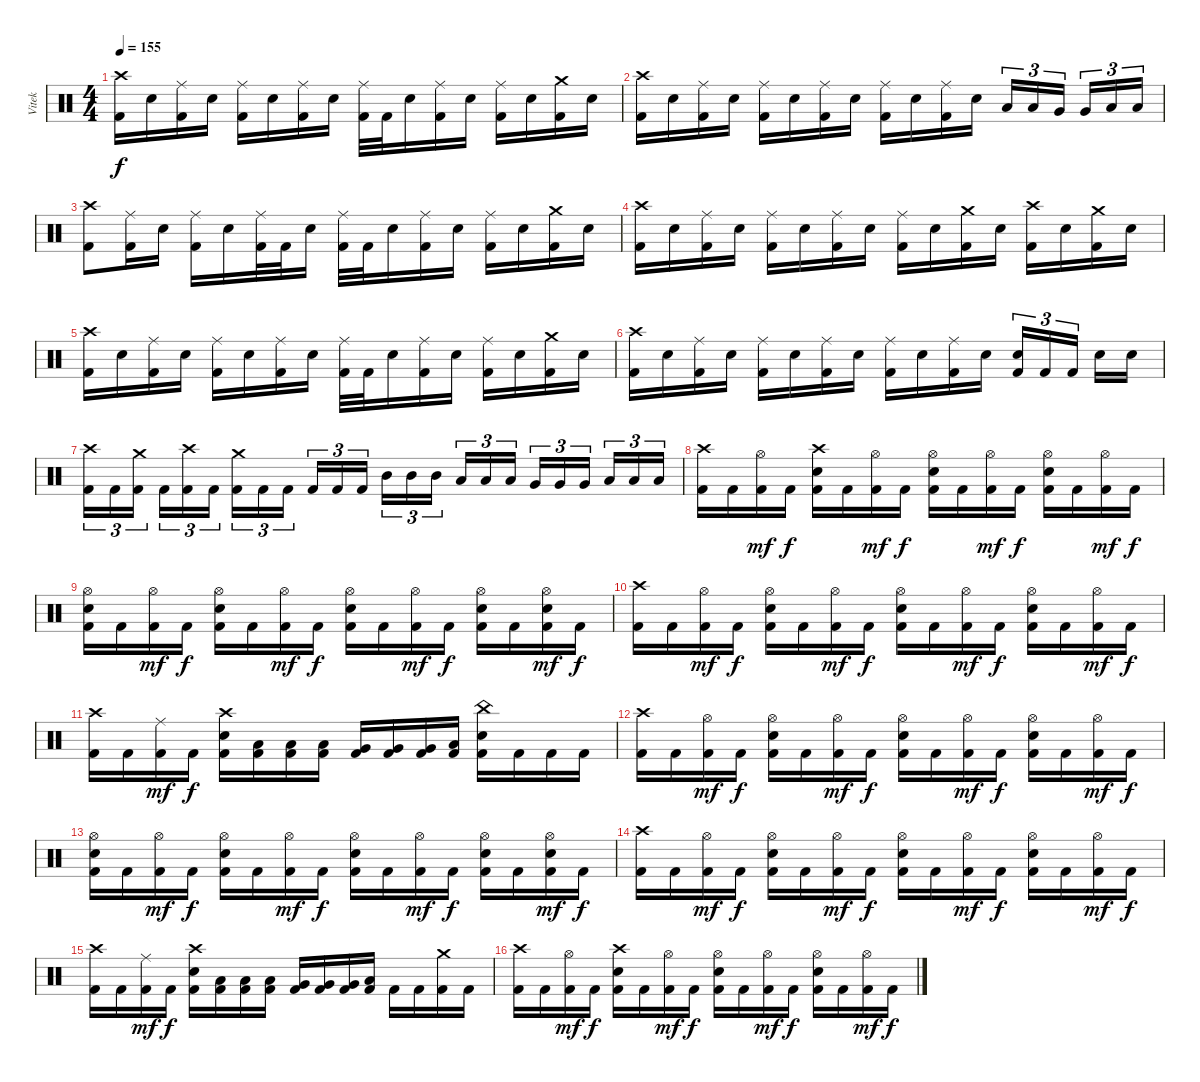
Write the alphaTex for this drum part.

\track ("Vitek" "Vitek") {instrument percussion}
\staff {score}
\articulation defaults
\ts (4 4)
\tempo 155
\clef neutral
\ks c
("Crash high (hit)" "Kick (hit) 2").16{dy f} "Electric Snare (hit)".16 ("Ride (middle)" "Kick (hit) 2").16 "Electric Snare (hit)".16 ("Ride (middle)" "Kick (hit) 2").16 "Electric Snare (hit)".16 ("Ride (middle)" "Kick (hit) 2").16 "Electric Snare (hit)".16 ("Ride (middle)" "Kick (hit) 2").32 "Kick (hit) 2".32 "Electric Snare (hit)".16 ("Ride (middle)" "Kick (hit) 2").16 "Electric Snare (hit)".16 ("Ride (middle)" "Kick (hit) 2").16 "Electric Snare (hit)".16 ("Crash medium (hit)" "Kick (hit) 2").16 "Electric Snare (hit)".16 |
("Crash high (hit)" "Kick (hit) 2").16 "Electric Snare (hit)".16 ("Ride (middle)" "Kick (hit) 2").16 "Electric Snare (hit)".16 ("Ride (middle)" "Kick (hit) 2").16 "Electric Snare (hit)".16 ("Ride (middle)" "Kick (hit) 2").16 "Electric Snare (hit)".16 ("Ride (middle)" "Kick (hit) 2").16 "Electric Snare (hit)".16 ("Ride (middle)" "Kick (hit) 2").16 "Electric Snare (hit)".16 "Low Tom (hit)".16{tu (3 2)} "Low Tom (hit)".16{tu (3 2)} "Very Low Tom (hit)".16{tu (3 2) beam splitsecondary} "Very Low Tom (hit)".16{tu (3 2)} "Low Floor Tom (hit)".16{tu (3 2)} "Low Floor Tom (hit)".16{tu (3 2)} |
("Crash high (hit)" "Kick (hit) 2").8 ("Ride (middle)" "Kick (hit) 2").16 "Electric Snare (hit)".16 ("Ride (middle)" "Kick (hit) 2").16 "Electric Snare (hit)".16 ("Ride (middle)" "Kick (hit) 2").32 "Kick (hit) 2".32 "Electric Snare (hit)".16 ("Ride (middle)" "Kick (hit) 2").32 "Kick (hit) 2".32 "Electric Snare (hit)".16 ("Ride (middle)" "Kick (hit) 2").16 "Electric Snare (hit)".16 ("Ride (middle)" "Kick (hit) 2").16 "Electric Snare (hit)".16 ("Crash medium (hit)" "Kick (hit) 2").16 "Electric Snare (hit)".16 |
("Crash high (hit)" "Kick (hit) 2").16 "Electric Snare (hit)".16 ("Ride (middle)" "Kick (hit) 2").16 "Electric Snare (hit)".16 ("Ride (middle)" "Kick (hit) 2").16 "Electric Snare (hit)".16 ("Ride (middle)" "Kick (hit) 2").16 "Electric Snare (hit)".16 ("Ride (middle)" "Kick (hit) 2").16 "Electric Snare (hit)".16 ("Crash medium (hit)" "Kick (hit) 2").16 "Electric Snare (hit)".16 ("Crash high (hit)" "Kick (hit) 2").16 "Electric Snare (hit)".16 ("Crash medium (hit)" "Kick (hit) 2").16 "Electric Snare (hit)".16 |
("Crash high (hit)" "Kick (hit) 2").16 "Electric Snare (hit)".16 ("Ride (middle)" "Kick (hit) 2").16 "Electric Snare (hit)".16 ("Ride (middle)" "Kick (hit) 2").16 "Electric Snare (hit)".16 ("Ride (middle)" "Kick (hit) 2").16 "Electric Snare (hit)".16 ("Ride (middle)" "Kick (hit) 2").32 "Kick (hit) 2".32 "Electric Snare (hit)".16 ("Ride (middle)" "Kick (hit) 2").16 "Electric Snare (hit)".16 ("Ride (middle)" "Kick (hit) 2").16 "Electric Snare (hit)".16 ("Crash medium (hit)" "Kick (hit) 2").16 "Electric Snare (hit)".16 |
("Crash high (hit)" "Kick (hit) 2").16 "Electric Snare (hit)".16 ("Ride (middle)" "Kick (hit) 2").16 "Electric Snare (hit)".16 ("Ride (middle)" "Kick (hit) 2").16 "Electric Snare (hit)".16 ("Ride (middle)" "Kick (hit) 2").16 "Electric Snare (hit)".16 ("Ride (middle)" "Kick (hit) 2").16 "Electric Snare (hit)".16 ("Ride (middle)" "Kick (hit) 2").16 "Electric Snare (hit)".16 ("Electric Snare (hit)" "Kick (hit) 2").16{tu (3 2)} "Kick (hit) 2".16{tu (3 2)} "Kick (hit) 2".16{tu (3 2) beam splitsecondary} "Electric Snare (hit)".16 "Electric Snare (hit)".16 |
("Crash high (hit)" "Kick (hit) 2").16{tu (3 2)} "Kick (hit) 2".16{tu (3 2)} ("Crash medium (hit)" "Kick (hit) 2").16{tu (3 2) beam splitsecondary} "Kick (hit) 2".16{tu (3 2)} ("Crash high (hit)" "Kick (hit) 2").16{tu (3 2)} "Kick (hit) 2".16{tu (3 2)} ("Crash medium (hit)" "Kick (hit) 2").16{tu (3 2)} "Kick (hit) 2".16{tu (3 2)} "Kick (hit) 2".16{tu (3 2) beam splitsecondary} "Kick (hit) 2".16{tu (3 2)} "Kick (hit) 2".16{tu (3 2)} "Kick (hit) 2".16{tu (3 2)} "Mid Tom (hit)".16{tu (3 2)} "Mid Tom (hit)".16{tu (3 2)} "Mid Tom (hit)".16{tu (3 2) beam splitsecondary} "Low Tom (hit)".16{tu (3 2)} "Low Tom (hit)".16{tu (3 2)} "Low Tom (hit)".16{tu (3 2)} "Very Low Tom (hit)".16{tu (3 2)} "Very Low Tom (hit)".16{tu (3 2)} "Very Low Tom (hit)".16{tu (3 2) beam splitsecondary} "Low Floor Tom (hit)".16{tu (3 2)} "Low Floor Tom (hit)".16{tu (3 2)} "Low Floor Tom (hit)".16{tu (3 2)} |
("Crash high (hit)" "Kick (hit) 2").16 "Kick (hit) 2".16 ("Hi-Hat (open)" "Kick (hit) 2").16{dy mf} "Kick (hit) 2".16{dy f} ("Crash high (hit)" "Electric Snare (hit)" "Kick (hit) 2").16 "Kick (hit) 2".16 ("Hi-Hat (open)" "Kick (hit) 2").16{dy mf} "Kick (hit) 2".16{dy f} ("Hi-Hat (open)" "Electric Snare (hit)" "Kick (hit) 2").16 "Kick (hit) 2".16 ("Hi-Hat (open)" "Kick (hit) 2").16{dy mf} "Kick (hit) 2".16{dy f} ("Hi-Hat (open)" "Electric Snare (hit)" "Kick (hit) 2").16 "Kick (hit) 2".16 ("Hi-Hat (open)" "Kick (hit) 2").16{dy mf} "Kick (hit) 2".16{dy f} |
("Hi-Hat (open)" "Electric Snare (hit)" "Kick (hit) 2").16 "Kick (hit) 2".16 ("Hi-Hat (open)" "Kick (hit) 2").16{dy mf} "Kick (hit) 2".16{dy f} ("Hi-Hat (open)" "Electric Snare (hit)" "Kick (hit) 2").16 "Kick (hit) 2".16 ("Hi-Hat (open)" "Kick (hit) 2").16{dy mf} "Kick (hit) 2".16{dy f} ("Hi-Hat (open)" "Electric Snare (hit)" "Kick (hit) 2").16 "Kick (hit) 2".16 ("Hi-Hat (open)" "Kick (hit) 2").16{dy mf} "Kick (hit) 2".16{dy f} ("Hi-Hat (open)" "Electric Snare (hit)" "Kick (hit) 2").16 "Kick (hit) 2".16 ("Hi-Hat (open)" "Electric Snare (hit)" "Kick (hit) 2").16{dy mf} "Kick (hit) 2".16{dy f} |
("Crash high (hit)" "Kick (hit) 2").16 "Kick (hit) 2".16 ("Hi-Hat (open)" "Kick (hit) 2").16{dy mf} "Kick (hit) 2".16{dy f} ("Hi-Hat (open)" "Electric Snare (hit)" "Kick (hit) 2").16 "Kick (hit) 2".16 ("Hi-Hat (open)" "Kick (hit) 2").16{dy mf} "Kick (hit) 2".16{dy f} ("Hi-Hat (open)" "Electric Snare (hit)" "Kick (hit) 2").16 "Kick (hit) 2".16 ("Hi-Hat (open)" "Kick (hit) 2").16{dy mf} "Kick (hit) 2".16{dy f} ("Hi-Hat (open)" "Electric Snare (hit)" "Kick (hit) 2").16 "Kick (hit) 2".16 ("Hi-Hat (open)" "Kick (hit) 2").16{dy mf} "Kick (hit) 2".16{dy f} |
("Crash high (hit)" "Kick (hit) 2").16 "Kick (hit) 2".16 ("Ride (middle)" "Kick (hit) 2").16{dy mf} "Kick (hit) 2".16{dy f} ("Crash high (hit)" "Electric Snare (hit)" "Kick (hit) 2").16 ("Low Tom (hit)" "Kick (hit) 2").16 ("Low Tom (hit)" "Kick (hit) 2").16 ("Low Tom (hit)" "Kick (hit) 2").16 ("Very Low Tom (hit)" "Kick (hit) 2").16 ("Very Low Tom (hit)" "Kick (hit) 2").16 ("Very Low Tom (hit)" "Kick (hit) 2").16 ("Low Floor Tom (hit)" "Kick (hit) 2").16 ("China (hit)" "Electric Snare (hit)" "Kick (hit) 2").16 "Kick (hit) 2".16 "Kick (hit) 2".16 "Kick (hit) 2".16 |
("Crash high (hit)" "Kick (hit) 2").16 "Kick (hit) 2".16 ("Hi-Hat (open)" "Kick (hit) 2").16{dy mf} "Kick (hit) 2".16{dy f} ("Hi-Hat (open)" "Electric Snare (hit)" "Kick (hit) 2").16 "Kick (hit) 2".16 ("Hi-Hat (open)" "Kick (hit) 2").16{dy mf} "Kick (hit) 2".16{dy f} ("Hi-Hat (open)" "Electric Snare (hit)" "Kick (hit) 2").16 "Kick (hit) 2".16 ("Hi-Hat (open)" "Kick (hit) 2").16{dy mf} "Kick (hit) 2".16{dy f} ("Hi-Hat (open)" "Electric Snare (hit)" "Kick (hit) 2").16 "Kick (hit) 2".16 ("Hi-Hat (open)" "Kick (hit) 2").16{dy mf} "Kick (hit) 2".16{dy f} |
("Hi-Hat (open)" "Electric Snare (hit)" "Kick (hit) 2").16 "Kick (hit) 2".16 ("Hi-Hat (open)" "Kick (hit) 2").16{dy mf} "Kick (hit) 2".16{dy f} ("Hi-Hat (open)" "Electric Snare (hit)" "Kick (hit) 2").16 "Kick (hit) 2".16 ("Hi-Hat (open)" "Kick (hit) 2").16{dy mf} "Kick (hit) 2".16{dy f} ("Hi-Hat (open)" "Electric Snare (hit)" "Kick (hit) 2").16 "Kick (hit) 2".16 ("Hi-Hat (open)" "Kick (hit) 2").16{dy mf} "Kick (hit) 2".16{dy f} ("Hi-Hat (open)" "Electric Snare (hit)" "Kick (hit) 2").16 "Kick (hit) 2".16 ("Hi-Hat (open)" "Electric Snare (hit)" "Kick (hit) 2").16{dy mf} "Kick (hit) 2".16{dy f} |
("Crash high (hit)" "Kick (hit) 2").16 "Kick (hit) 2".16 ("Hi-Hat (open)" "Kick (hit) 2").16{dy mf} "Kick (hit) 2".16{dy f} ("Hi-Hat (open)" "Electric Snare (hit)" "Kick (hit) 2").16 "Kick (hit) 2".16 ("Hi-Hat (open)" "Kick (hit) 2").16{dy mf} "Kick (hit) 2".16{dy f} ("Hi-Hat (open)" "Electric Snare (hit)" "Kick (hit) 2").16 "Kick (hit) 2".16 ("Hi-Hat (open)" "Kick (hit) 2").16{dy mf} "Kick (hit) 2".16{dy f} ("Hi-Hat (open)" "Electric Snare (hit)" "Kick (hit) 2").16 "Kick (hit) 2".16 ("Hi-Hat (open)" "Kick (hit) 2").16{dy mf} "Kick (hit) 2".16{dy f} |
("Crash high (hit)" "Kick (hit) 2").16 "Kick (hit) 2".16 ("Ride (middle)" "Kick (hit) 2").16{dy mf} "Kick (hit) 2".16{dy f} ("Crash high (hit)" "Electric Snare (hit)" "Kick (hit) 2").16 ("Low Tom (hit)" "Kick (hit) 2").16 ("Low Tom (hit)" "Kick (hit) 2").16 ("Low Tom (hit)" "Kick (hit) 2").16 ("Very Low Tom (hit)" "Kick (hit) 2").16 ("Very Low Tom (hit)" "Kick (hit) 2").16 ("Very Low Tom (hit)" "Kick (hit) 2").16 ("Low Floor Tom (hit)" "Kick (hit) 2").16 "Kick (hit) 2".16 "Kick (hit) 2".16 ("Crash medium (hit)" "Kick (hit) 2").16 "Kick (hit) 2".16 |
("Crash high (hit)" "Kick (hit) 2").16 "Kick (hit) 2".16 ("Hi-Hat (open)" "Kick (hit) 2").16{dy mf} "Kick (hit) 2".16{dy f} ("Crash high (hit)" "Electric Snare (hit)" "Kick (hit) 2").16 "Kick (hit) 2".16 ("Hi-Hat (open)" "Kick (hit) 2").16{dy mf} "Kick (hit) 2".16{dy f} ("Hi-Hat (open)" "Electric Snare (hit)" "Kick (hit) 2").16 "Kick (hit) 2".16 ("Hi-Hat (open)" "Kick (hit) 2").16{dy mf} "Kick (hit) 2".16{dy f} ("Hi-Hat (open)" "Electric Snare (hit)" "Kick (hit) 2").16 "Kick (hit) 2".16 ("Hi-Hat (open)" "Kick (hit) 2").16{dy mf} "Kick (hit) 2".16{dy f}
